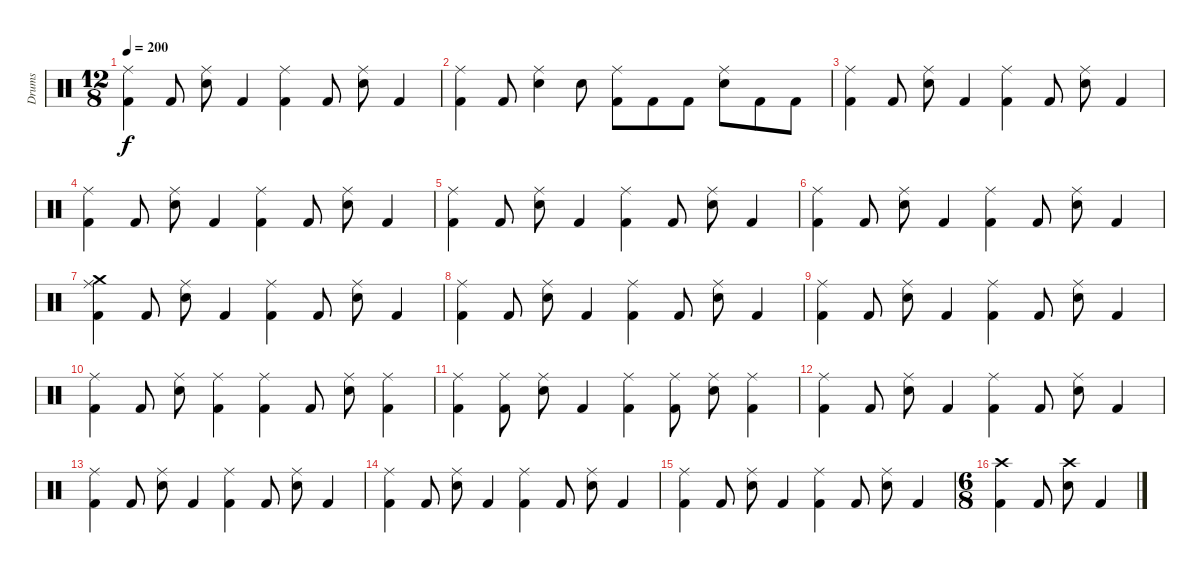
\track ("Drums" "Drums") {instrument percussion}
\staff {score}
\articulation defaults
\ts (12 8)
\tempo 200
\clef neutral
\ks c
("Ride (middle)" "Kick (hit) 2").4{dy f} "Kick (hit) 2".8 ("Ride (middle)" "Electric Snare (hit)").8 "Kick (hit) 2".4 ("Ride (middle)" "Kick (hit) 2").4 "Kick (hit) 2".8 ("Ride (middle)" "Electric Snare (hit)").8 "Kick (hit) 2".4 |
("Ride (middle)" "Kick (hit) 2").4 "Kick (hit) 2".8 ("Ride (middle)" "Electric Snare (hit)").4 "Electric Snare (hit)".8 ("Ride (middle)" "Kick (hit) 2").8 "Kick (hit) 2".8 "Kick (hit) 2".8 ("Ride (middle)" "Electric Snare (hit)").8 "Kick (hit) 2".8 "Kick (hit) 2".8 |
("Ride (middle)" "Kick (hit) 2").4 "Kick (hit) 2".8 ("Ride (middle)" "Electric Snare (hit)").8 "Kick (hit) 2".4 ("Ride (middle)" "Kick (hit) 2").4 "Kick (hit) 2".8 ("Ride (middle)" "Electric Snare (hit)").8 "Kick (hit) 2".4 |
("Ride (middle)" "Kick (hit) 2").4 "Kick (hit) 2".8 ("Ride (middle)" "Electric Snare (hit)").8 "Kick (hit) 2".4 ("Ride (middle)" "Kick (hit) 2").4 "Kick (hit) 2".8 ("Ride (middle)" "Electric Snare (hit)").8 "Kick (hit) 2".4 |
("Ride (middle)" "Kick (hit) 2").4 "Kick (hit) 2".8 ("Ride (middle)" "Electric Snare (hit)").8 "Kick (hit) 2".4 ("Ride (middle)" "Kick (hit) 2").4 "Kick (hit) 2".8 ("Ride (middle)" "Electric Snare (hit)").8 "Kick (hit) 2".4 |
("Ride (middle)" "Kick (hit) 2").4 "Kick (hit) 2".8 ("Ride (middle)" "Electric Snare (hit)").8 "Kick (hit) 2".4 ("Ride (middle)" "Kick (hit) 2").4 "Kick (hit) 2".8 ("Ride (middle)" "Electric Snare (hit)").8 "Kick (hit) 2".4 |
("Crash medium (hit)" "Ride (middle)" "Kick (hit) 2").4 "Kick (hit) 2".8 ("Ride (middle)" "Electric Snare (hit)").8 "Kick (hit) 2".4 ("Ride (middle)" "Kick (hit) 2").4 "Kick (hit) 2".8 ("Ride (middle)" "Electric Snare (hit)").8 "Kick (hit) 2".4 |
("Ride (middle)" "Kick (hit) 2").4 "Kick (hit) 2".8 ("Ride (middle)" "Electric Snare (hit)").8 "Kick (hit) 2".4 ("Ride (middle)" "Kick (hit) 2").4 "Kick (hit) 2".8 ("Ride (middle)" "Electric Snare (hit)").8 "Kick (hit) 2".4 |
("Ride (middle)" "Kick (hit) 2").4 "Kick (hit) 2".8 ("Ride (middle)" "Electric Snare (hit)").8 "Kick (hit) 2".4 ("Ride (middle)" "Kick (hit) 2").4 "Kick (hit) 2".8 ("Ride (middle)" "Electric Snare (hit)").8 "Kick (hit) 2".4 |
("Ride (middle)" "Kick (hit) 2").4 "Kick (hit) 2".8 ("Ride (middle)" "Electric Snare (hit)").8 ("Ride (middle)" "Kick (hit) 2").4 ("Ride (middle)" "Kick (hit) 2").4 "Kick (hit) 2".8 ("Ride (middle)" "Electric Snare (hit)").8 ("Ride (middle)" "Kick (hit) 2").4 |
("Ride (middle)" "Kick (hit) 2").4 ("Ride (middle)" "Kick (hit) 2").8 ("Ride (middle)" "Electric Snare (hit)").8 "Kick (hit) 2".4 ("Ride (middle)" "Kick (hit) 2").4 ("Ride (middle)" "Kick (hit) 2").8 ("Ride (middle)" "Electric Snare (hit)").8 ("Ride (middle)" "Kick (hit) 2").4 |
("Ride (middle)" "Kick (hit) 2").4 "Kick (hit) 2".8 ("Ride (middle)" "Electric Snare (hit)").8 "Kick (hit) 2".4 ("Ride (middle)" "Kick (hit) 2").4 "Kick (hit) 2".8 ("Ride (middle)" "Electric Snare (hit)").8 "Kick (hit) 2".4 |
("Ride (middle)" "Kick (hit) 2").4 "Kick (hit) 2".8 ("Ride (middle)" "Electric Snare (hit)").8 "Kick (hit) 2".4 ("Ride (middle)" "Kick (hit) 2").4 "Kick (hit) 2".8 ("Ride (middle)" "Electric Snare (hit)").8 "Kick (hit) 2".4 |
("Ride (middle)" "Kick (hit) 2").4 "Kick (hit) 2".8 ("Ride (middle)" "Electric Snare (hit)").8 "Kick (hit) 2".4 ("Ride (middle)" "Kick (hit) 2").4 "Kick (hit) 2".8 ("Ride (middle)" "Electric Snare (hit)").8 "Kick (hit) 2".4 |
("Ride (middle)" "Kick (hit) 2").4 "Kick (hit) 2".8 ("Ride (middle)" "Electric Snare (hit)").8 "Kick (hit) 2".4 ("Ride (middle)" "Kick (hit) 2").4 "Kick (hit) 2".8 ("Ride (middle)" "Electric Snare (hit)").8 "Kick (hit) 2".4 |
\ts (6 8)
("Crash high (hit)" "Kick (hit) 2").4 "Kick (hit) 2".8 ("Crash high (hit)" "Electric Snare (hit)").8 "Kick (hit) 2".4
